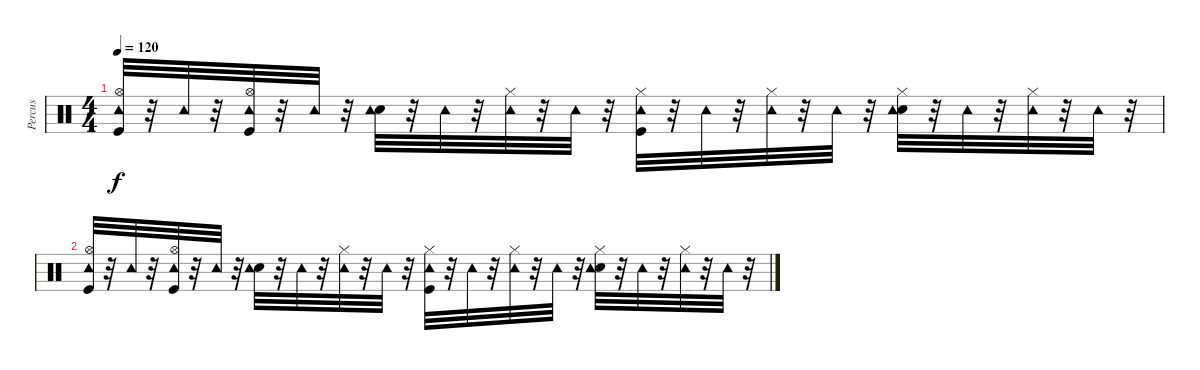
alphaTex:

\track ("Percus" "Percus") {instrument percussion}
\staff {score}
\articulation defaults
\ts (4 4)
\tempo 120
\clef neutral
\ks c
("Kick (hit)" "Hi-Hat (open)" "Tambourine (hit)").32{dy f volume 0} r.32 "Tambourine (hit)".32 r.32 ("Kick (hit)" "Hi-Hat (open)" "Tambourine (hit)").32 r.32 "Tambourine (hit)".32 r.32 ("Electric Snare (hit)" "Tambourine (hit)").32 r.32 "Tambourine (hit)".32 r.32 ("Hi-Hat (closed)" "Tambourine (hit)").32 r.32 "Tambourine (hit)".32 r.32 ("Kick (hit)" "Hi-Hat (closed)" "Tambourine (hit)").32 r.32 "Tambourine (hit)".32 r.32 ("Hi-Hat (closed)" "Tambourine (hit)").32 r.32 "Tambourine (hit)".32 r.32 ("Electric Snare (hit)" "Hi-Hat (closed)" "Tambourine (hit)").32 r.32 "Tambourine (hit)".32 r.32 ("Hi-Hat (closed)" "Tambourine (hit)").32 r.32 "Tambourine (hit)".32 r.32 |
("Kick (hit)" "Hi-Hat (open)" "Tambourine (hit)").32 r.32 "Tambourine (hit)".32 r.32 ("Kick (hit)" "Hi-Hat (open)" "Tambourine (hit)").32 r.32 "Tambourine (hit)".32 r.32 ("Electric Snare (hit)" "Tambourine (hit)").32 r.32 "Tambourine (hit)".32 r.32 ("Hi-Hat (closed)" "Tambourine (hit)").32 r.32 "Tambourine (hit)".32 r.32 ("Kick (hit)" "Hi-Hat (closed)" "Tambourine (hit)").32 r.32 "Tambourine (hit)".32 r.32 ("Hi-Hat (closed)" "Tambourine (hit)").32 r.32 "Tambourine (hit)".32 r.32 ("Electric Snare (hit)" "Hi-Hat (closed)" "Tambourine (hit)").32 r.32 "Tambourine (hit)".32 r.32 ("Hi-Hat (closed)" "Tambourine (hit)").32 r.32 "Tambourine (hit)".32 r.32
